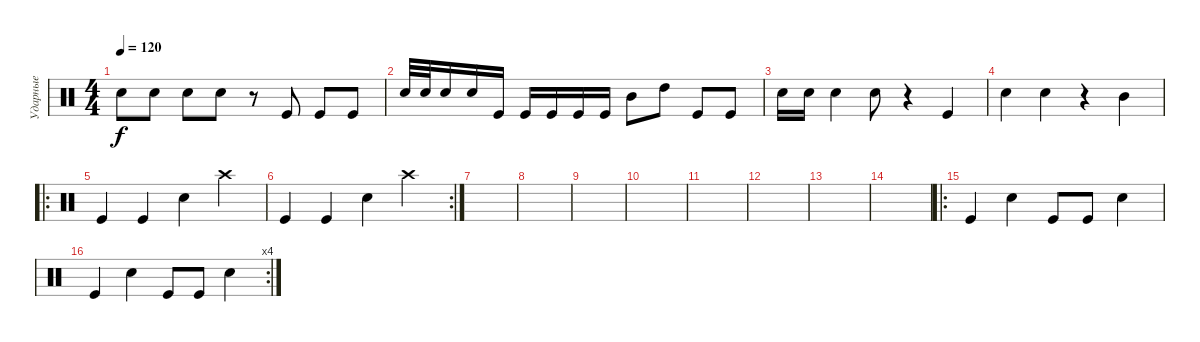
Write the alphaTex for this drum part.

\track ("Ударные" "Ударные") {instrument percussion}
\staff {score}
\articulation defaults
\ts (4 4)
\tempo 120
\clef neutral
\ks c "Snare (hit) 2".8{dy f} "Snare (hit) 2".8 "Snare (hit) 2".8 "Snare (hit) 2".8
r.8 "Kick (hit)".8 "Kick (hit)".8 "Kick (hit)".8 |
"Snare (hit) 2".32 "Snare (hit) 2".32 "Snare (hit) 2".16 "Snare (hit) 2".16 "Kick (hit)".16 "Kick (hit)".16 "Kick (hit)".16 "Kick (hit)".16 "Kick (hit)".16 "Mid Tom (hit)".8 "High Tom (hit)".8 "Kick (hit)".8 "Kick (hit)".8 |
"Snare (hit) 2".16 "Snare (hit) 2".16 "Snare (hit) 2".4 "Snare (hit) 2".8 r.4 "Kick (hit)".4 |
"Snare (hit) 2".4 "Snare (hit) 2".4 r.4 "Mid Tom (hit)".4 |
\ro "Kick (hit)".4 "Kick (hit)".4 "Electric Snare (hit)".4 "Crash high (hit)".4
|
\rc 2 "Kick (hit)".4 "Kick (hit)".4 "Electric Snare (hit)".4 "Crash high (hit)".4
|
|
|
|
|
|
|
|
|
\ro "Kick (hit)".4 "Electric Snare (hit)".4 "Kick (hit)".8 "Kick (hit)".8 "Electric Snare (hit)".4
|
\rc 4 "Kick (hit)".4 "Electric Snare (hit)".4 "Kick (hit)".8 "Kick (hit)".8 "Electric Snare (hit)".4
